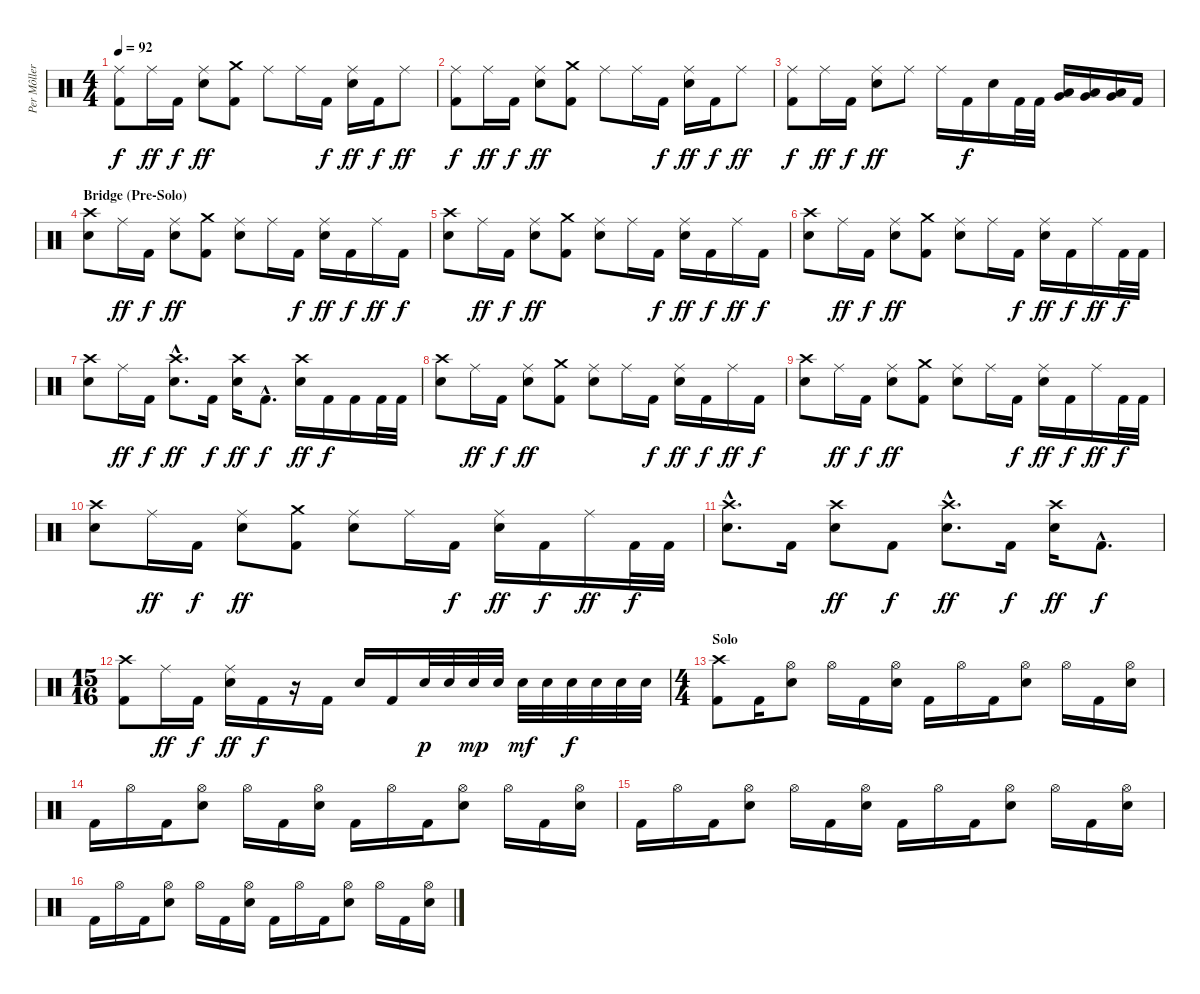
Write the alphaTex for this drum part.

\track ("Per Môller Jensen" "Per Môller") {instrument percussion}
\staff {score}
\articulation defaults
\ts (4 4)
\tempo 92
\clef neutral
\ks c
("Kick (hit) 2" "Ride (middle)").8{dy f} "Ride (middle)".16{dy ff} "Kick (hit) 2".16{dy f} ("Electric Snare (hit)" "Ride (middle)").8{dy ff} ("Kick (hit) 2" "Crash medium (hit)").8 "Ride (middle)".8 "Ride (middle)".16 "Kick (hit) 2".16{dy f} ("Electric Snare (hit)" "Ride (middle)").16{dy ff} "Kick (hit) 2".16{dy f} "Ride (middle)".8{dy ff} |
("Kick (hit) 2" "Ride (middle)").8{dy f} "Ride (middle)".16{dy ff} "Kick (hit) 2".16{dy f} ("Electric Snare (hit)" "Ride (middle)").8{dy ff} ("Kick (hit) 2" "Crash medium (hit)").8 "Ride (middle)".8 "Ride (middle)".16 "Kick (hit) 2".16{dy f} ("Electric Snare (hit)" "Ride (middle)").16{dy ff} "Kick (hit) 2".16{dy f} "Ride (middle)".8{dy ff} |
("Kick (hit) 2" "Ride (middle)").8{dy f} "Ride (middle)".16{dy ff} "Kick (hit) 2".16{dy f} ("Electric Snare (hit)" "Ride (middle)").8{dy ff} "Ride (middle)".8 "Ride (middle)".16 "Kick (hit) 2".16{dy f} "Electric Snare (hit)".16 "Kick (hit) 2".32 "Kick (hit) 2".32 ("Very Low Tom (hit)" "Low Floor Tom (hit)").16 ("Very Low Tom (hit)" "Low Floor Tom (hit)").16 ("Very Low Tom (hit)" "Low Floor Tom (hit)").16 "Kick (hit) 2".16 |
\section ("" "Bridge (Pre-Solo)")
("Electric Snare (hit)" "Crash high (hit)").8 "Ride (middle)".16{dy ff} "Kick (hit) 2".16{dy f} ("Electric Snare (hit)" "Ride (middle)").8{dy ff} ("Kick (hit) 2" "Crash medium (hit)").8 ("Electric Snare (hit)" "Ride (middle)").8 "Ride (middle)".16 "Kick (hit) 2".16{dy f} ("Electric Snare (hit)" "Ride (middle)").16{dy ff} "Kick (hit) 2".16{dy f} "Ride (middle)".16{dy ff} "Kick (hit) 2".16{dy f} |
("Electric Snare (hit)" "Crash high (hit)").8 "Ride (middle)".16{dy ff} "Kick (hit) 2".16{dy f} ("Electric Snare (hit)" "Ride (middle)").8{dy ff} ("Kick (hit) 2" "Crash medium (hit)").8 ("Electric Snare (hit)" "Ride (middle)").8 "Ride (middle)".16 "Kick (hit) 2".16{dy f} ("Electric Snare (hit)" "Ride (middle)").16{dy ff} "Kick (hit) 2".16{dy f} "Ride (middle)".16{dy ff} "Kick (hit) 2".16{dy f} |
("Electric Snare (hit)" "Crash high (hit)").8 "Ride (middle)".16{dy ff} "Kick (hit) 2".16{dy f} ("Electric Snare (hit)" "Ride (middle)").8{dy ff} ("Kick (hit) 2" "Crash medium (hit)").8 ("Electric Snare (hit)" "Ride (middle)").8 "Ride (middle)".16 "Kick (hit) 2".16{dy f} ("Electric Snare (hit)" "Ride (middle)").16{dy ff} "Kick (hit) 2".16{dy f} "Ride (middle)".16{dy ff} "Kick (hit) 2".32{dy f} "Kick (hit) 2".32 |
("Electric Snare (hit)" "Crash high (hit)").8 "Ride (middle)".16{dy ff} "Kick (hit) 2".16{dy f} ("Electric Snare (hit)"{hac} "Crash high (hit)"{hac}).8{d dy ff} "Kick (hit) 2".16{dy f} ("Electric Snare (hit)" "Crash high (hit)").16{dy ff} "Kick (hit) 2"{hac}.8{d dy f} ("Electric Snare (hit)" "Crash high (hit)").16{dy ff} "Kick (hit) 2".16{dy f} "Kick (hit) 2".16 "Kick (hit) 2".32 "Kick (hit) 2".32 |
("Electric Snare (hit)" "Crash high (hit)").8 "Ride (middle)".16{dy ff} "Kick (hit) 2".16{dy f} ("Electric Snare (hit)" "Ride (middle)").8{dy ff} ("Kick (hit) 2" "Crash medium (hit)").8 ("Electric Snare (hit)" "Ride (middle)").8 "Ride (middle)".16 "Kick (hit) 2".16{dy f} ("Electric Snare (hit)" "Ride (middle)").16{dy ff} "Kick (hit) 2".16{dy f} "Ride (middle)".16{dy ff} "Kick (hit) 2".16{dy f} |
("Electric Snare (hit)" "Crash high (hit)").8 "Ride (middle)".16{dy ff} "Kick (hit) 2".16{dy f} ("Electric Snare (hit)" "Ride (middle)").8{dy ff} ("Kick (hit) 2" "Crash medium (hit)").8 ("Electric Snare (hit)" "Ride (middle)").8 "Ride (middle)".16 "Kick (hit) 2".16{dy f} ("Electric Snare (hit)" "Ride (middle)").16{dy ff} "Kick (hit) 2".16{dy f} "Ride (middle)".16{dy ff} "Kick (hit) 2".32{dy f} "Kick (hit) 2".32 |
("Electric Snare (hit)" "Crash high (hit)").8 "Ride (middle)".16{dy ff} "Kick (hit) 2".16{dy f} ("Electric Snare (hit)" "Ride (middle)").8{dy ff} ("Kick (hit) 2" "Crash medium (hit)").8 ("Electric Snare (hit)" "Ride (middle)").8 "Ride (middle)".16 "Kick (hit) 2".16{dy f} ("Electric Snare (hit)" "Ride (middle)").16{dy ff} "Kick (hit) 2".16{dy f} "Ride (middle)".16{dy ff} "Kick (hit) 2".32{dy f} "Kick (hit) 2".32 |
("Electric Snare (hit)"{hac} "Crash high (hit)"{hac}).8{d} "Kick (hit) 2".16 ("Electric Snare (hit)" "Crash high (hit)").8{dy ff} "Kick (hit) 2".8{dy f} ("Electric Snare (hit)"{hac} "Crash high (hit)"{hac}).8{d dy ff} "Kick (hit) 2".16{dy f} ("Electric Snare (hit)" "Crash high (hit)").16{dy ff} "Kick (hit) 2"{hac}.8{d dy f} |
\ts (15 16)
("Kick (hit) 2" "Crash high (hit)").8 "Ride (middle)".16{dy ff} "Kick (hit) 2".16{dy f} ("Electric Snare (hit)" "Ride (middle)").16{dy ff} "Kick (hit) 2".16{dy f} r.16 "Kick (hit) 2".16 "Electric Snare (hit)".16 "Kick (hit) 2".16 "Electric Snare (hit)".32{dy p} "Electric Snare (hit)".32 "Electric Snare (hit)".32{dy mp} "Electric Snare (hit)".32 "Electric Snare (hit)".32{dy mf} "Electric Snare (hit)".32 "Electric Snare (hit)".32{dy f} "Electric Snare (hit)".32 "Electric Snare (hit)".32 "Electric Snare (hit)".32 |
\ts (4 4)
\section ("" "Solo")
("Kick (hit) 2" "Crash high (hit)").8 "Kick (hit) 2".16 ("Electric Snare (hit)" "Hi-Hat (open)").8 "Hi-Hat (open)".16 "Kick (hit) 2".16 ("Electric Snare (hit)" "Hi-Hat (open)").16 "Kick (hit) 2".16 "Hi-Hat (open)".16 "Kick (hit) 2".16 ("Electric Snare (hit)" "Hi-Hat (open)").8 "Hi-Hat (open)".16 "Kick (hit) 2".16 ("Electric Snare (hit)" "Hi-Hat (open)").16 |
"Kick (hit) 2".16 "Hi-Hat (open)".16 "Kick (hit) 2".16 ("Electric Snare (hit)" "Hi-Hat (open)").8 "Hi-Hat (open)".16 "Kick (hit) 2".16 ("Electric Snare (hit)" "Hi-Hat (open)").16 "Kick (hit) 2".16 "Hi-Hat (open)".16 "Kick (hit) 2".16 ("Electric Snare (hit)" "Hi-Hat (open)").8 "Hi-Hat (open)".16 "Kick (hit) 2".16 ("Electric Snare (hit)" "Hi-Hat (open)").16 |
"Kick (hit) 2".16 "Hi-Hat (open)".16 "Kick (hit) 2".16 ("Electric Snare (hit)" "Hi-Hat (open)").8 "Hi-Hat (open)".16 "Kick (hit) 2".16 ("Electric Snare (hit)" "Hi-Hat (open)").16 "Kick (hit) 2".16 "Hi-Hat (open)".16 "Kick (hit) 2".16 ("Electric Snare (hit)" "Hi-Hat (open)").8 "Hi-Hat (open)".16 "Kick (hit) 2".16 ("Electric Snare (hit)" "Hi-Hat (open)").16 |
"Kick (hit) 2".16 "Hi-Hat (open)".16 "Kick (hit) 2".16 ("Electric Snare (hit)" "Hi-Hat (open)").8 "Hi-Hat (open)".16 "Kick (hit) 2".16 ("Electric Snare (hit)" "Hi-Hat (open)").16 "Kick (hit) 2".16 "Hi-Hat (open)".16 "Kick (hit) 2".16 ("Electric Snare (hit)" "Hi-Hat (open)").8 "Hi-Hat (open)".16 "Kick (hit) 2".16 ("Electric Snare (hit)" "Hi-Hat (open)").16
